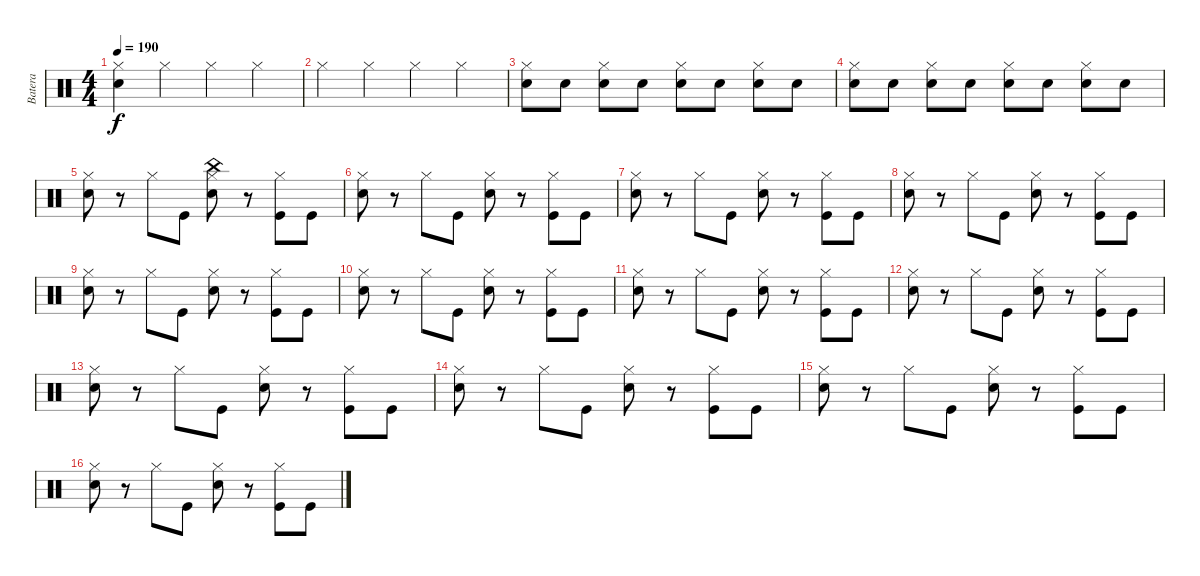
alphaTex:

\track ("Batera" "Batera") {instrument percussion}
\staff {score}
\articulation defaults
\ts (4 4)
\tempo 190
\clef neutral
\ks c
("Hi-Hat (closed)" "Snare (hit) 2").4{dy f} "Hi-Hat (closed)".4 "Hi-Hat (closed)".4 "Hi-Hat (closed)".4 |
"Hi-Hat (closed)".4 "Hi-Hat (closed)".4 "Hi-Hat (closed)".4 "Hi-Hat (closed)".4 |
("Hi-Hat (closed)" "Snare (hit) 2").8 "Snare (hit) 2".8 ("Hi-Hat (closed)" "Snare (hit) 2").8 "Snare (hit) 2".8 ("Hi-Hat (closed)" "Snare (hit) 2").8 "Snare (hit) 2".8 ("Hi-Hat (closed)" "Snare (hit) 2").8 "Snare (hit) 2".8 |
("Hi-Hat (closed)" "Snare (hit) 2").8 "Snare (hit) 2".8 ("Hi-Hat (closed)" "Snare (hit) 2").8 "Snare (hit) 2".8 ("Hi-Hat (closed)" "Snare (hit) 2").8 "Snare (hit) 2".8 ("Hi-Hat (closed)" "Snare (hit) 2").8 "Snare (hit) 2".8 |
("Hi-Hat (closed)" "Snare (hit) 2").8 r.8 "Hi-Hat (closed)".8 "Kick (hit)".8 ("Hi-Hat (closed)" "Snare (hit) 2" "China (hit)").8 r.8 ("Hi-Hat (closed)" "Kick (hit)").8 "Kick (hit)".8 |
("Hi-Hat (closed)" "Snare (hit) 2").8 r.8 "Hi-Hat (closed)".8 "Kick (hit)".8 ("Hi-Hat (closed)" "Snare (hit) 2").8 r.8 ("Hi-Hat (closed)" "Kick (hit)").8 "Kick (hit)".8 |
("Hi-Hat (closed)" "Snare (hit) 2").8 r.8 "Hi-Hat (closed)".8 "Kick (hit)".8 ("Hi-Hat (closed)" "Snare (hit) 2").8 r.8 ("Hi-Hat (closed)" "Kick (hit)").8 "Kick (hit)".8 |
("Hi-Hat (closed)" "Snare (hit) 2").8 r.8 "Hi-Hat (closed)".8 "Kick (hit)".8 ("Hi-Hat (closed)" "Snare (hit) 2").8 r.8 ("Hi-Hat (closed)" "Kick (hit)").8 "Kick (hit)".8 |
("Hi-Hat (closed)" "Snare (hit) 2").8 r.8 "Hi-Hat (closed)".8 "Kick (hit)".8 ("Hi-Hat (closed)" "Snare (hit) 2").8 r.8 ("Hi-Hat (closed)" "Kick (hit)").8 "Kick (hit)".8 |
("Hi-Hat (closed)" "Snare (hit) 2").8 r.8 "Hi-Hat (closed)".8 "Kick (hit)".8 ("Hi-Hat (closed)" "Snare (hit) 2").8 r.8 ("Hi-Hat (closed)" "Kick (hit)").8 "Kick (hit)".8 |
("Hi-Hat (closed)" "Snare (hit) 2").8 r.8 "Hi-Hat (closed)".8 "Kick (hit)".8 ("Hi-Hat (closed)" "Snare (hit) 2").8 r.8 ("Hi-Hat (closed)" "Kick (hit)").8 "Kick (hit)".8 |
("Hi-Hat (closed)" "Snare (hit) 2").8 r.8 "Hi-Hat (closed)".8 "Kick (hit)".8 ("Hi-Hat (closed)" "Snare (hit) 2").8 r.8 ("Hi-Hat (closed)" "Kick (hit)").8 "Kick (hit)".8 |
("Hi-Hat (closed)" "Snare (hit) 2").8 r.8 "Hi-Hat (closed)".8 "Kick (hit)".8 ("Hi-Hat (closed)" "Snare (hit) 2").8 r.8 ("Hi-Hat (closed)" "Kick (hit)").8 "Kick (hit)".8 |
("Hi-Hat (closed)" "Snare (hit) 2").8 r.8 "Hi-Hat (closed)".8 "Kick (hit)".8 ("Hi-Hat (closed)" "Snare (hit) 2").8 r.8 ("Hi-Hat (closed)" "Kick (hit)").8 "Kick (hit)".8 |
("Hi-Hat (closed)" "Snare (hit) 2").8 r.8 "Hi-Hat (closed)".8 "Kick (hit)".8 ("Hi-Hat (closed)" "Snare (hit) 2").8 r.8 ("Hi-Hat (closed)" "Kick (hit)").8 "Kick (hit)".8 |
("Hi-Hat (closed)" "Snare (hit) 2").8 r.8 "Hi-Hat (closed)".8 "Kick (hit)".8 ("Hi-Hat (closed)" "Snare (hit) 2").8 r.8 ("Hi-Hat (closed)" "Kick (hit)").8 "Kick (hit)".8
